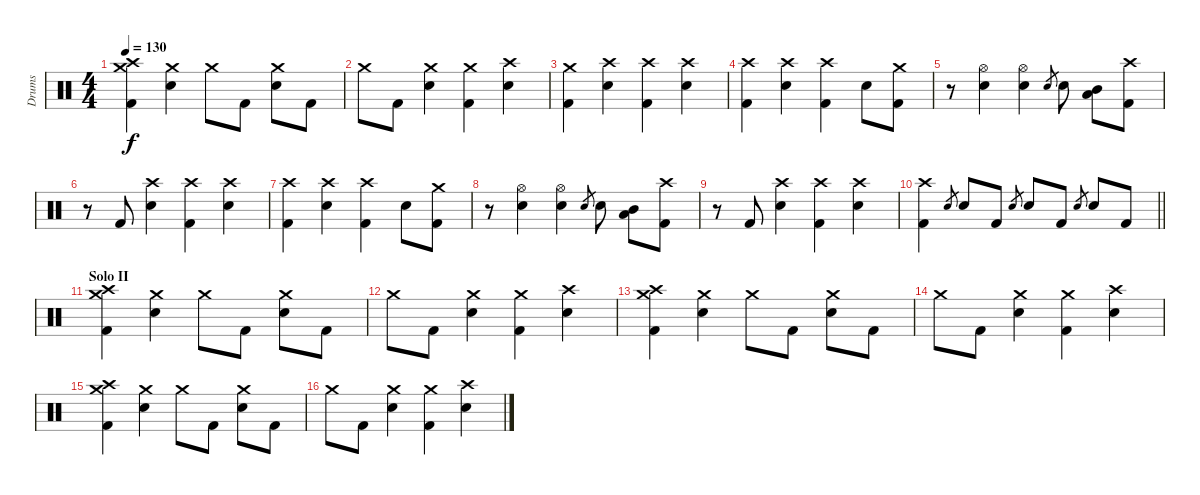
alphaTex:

\track ("Drums" "Drums") {instrument percussion}
\staff {score}
\articulation defaults
\ts (4 4)
\tempo 130
\clef neutral
\ks c
("Crash medium (hit)" "Crash high (hit)" "Kick (hit) 2").4{dy f} ("Crash medium (hit)" "Electric Snare (hit)").4 "Crash medium (hit)".8 "Kick (hit) 2".8 ("Crash medium (hit)" "Electric Snare (hit)").8 "Kick (hit) 2".8 |
"Crash medium (hit)".8 "Kick (hit) 2".8 ("Crash medium (hit)" "Electric Snare (hit)").4 ("Crash medium (hit)" "Kick (hit) 2").4 ("Crash high (hit)" "Electric Snare (hit)").4 |
("Crash medium (hit)" "Kick (hit) 2").4 ("Crash high (hit)" "Electric Snare (hit)").4 ("Crash high (hit)" "Kick (hit) 2").4 ("Crash high (hit)" "Electric Snare (hit)").4 |
("Crash high (hit)" "Kick (hit) 2").4 ("Crash high (hit)" "Electric Snare (hit)").4 ("Crash high (hit)" "Kick (hit) 2").4 "Electric Snare (hit)".8 ("Crash medium (hit)" "Kick (hit) 2").8 |
r.8 ("Hi-Hat (open)" "Electric Snare (hit)").4 ("Hi-Hat (open)" "Electric Snare (hit)").4 "Electric Snare (hit)".8{gr} "Electric Snare (hit)".8 ("Mid Tom (hit)" "Low Tom (hit)").8 ("Crash high (hit)" "Kick (hit) 2").8 |
r.8 "Kick (hit) 2".8 ("Crash high (hit)" "Electric Snare (hit)").4 ("Crash high (hit)" "Kick (hit) 2").4 ("Crash high (hit)" "Electric Snare (hit)").4 |
("Crash high (hit)" "Kick (hit) 2").4 ("Crash high (hit)" "Electric Snare (hit)").4 ("Crash high (hit)" "Kick (hit) 2").4 "Electric Snare (hit)".8 ("Crash medium (hit)" "Kick (hit) 2").8 |
r.8 ("Hi-Hat (open)" "Electric Snare (hit)").4 ("Hi-Hat (open)" "Electric Snare (hit)").4 "Electric Snare (hit)".8{gr} "Electric Snare (hit)".8 ("Mid Tom (hit)" "Low Tom (hit)").8 ("Crash high (hit)" "Kick (hit) 2").8 |
r.8 "Kick (hit) 2".8 ("Crash high (hit)" "Electric Snare (hit)").4 ("Crash high (hit)" "Kick (hit) 2").4 ("Crash high (hit)" "Electric Snare (hit)").4 |
\barLineRight lightlight
("Crash high (hit)" "Kick (hit) 2").4 "Electric Snare (hit)".8{gr} "Electric Snare (hit)".8 "Kick (hit) 2".8 "Electric Snare (hit)".8{gr} "Electric Snare (hit)".8 "Kick (hit) 2".8 "Electric Snare (hit)".8{gr} "Electric Snare (hit)".8 "Kick (hit) 2".8 |
\section ("" "Solo II")
("Crash medium (hit)" "Crash high (hit)" "Kick (hit) 2").4 ("Crash medium (hit)" "Electric Snare (hit)").4 "Crash medium (hit)".8 "Kick (hit) 2".8 ("Crash medium (hit)" "Electric Snare (hit)").8 "Kick (hit) 2".8 |
"Crash medium (hit)".8 "Kick (hit) 2".8 ("Crash medium (hit)" "Electric Snare (hit)").4 ("Crash medium (hit)" "Kick (hit) 2").4 ("Crash high (hit)" "Electric Snare (hit)").4 |
("Crash medium (hit)" "Crash high (hit)" "Kick (hit) 2").4 ("Crash medium (hit)" "Electric Snare (hit)").4 "Crash medium (hit)".8 "Kick (hit) 2".8 ("Crash medium (hit)" "Electric Snare (hit)").8 "Kick (hit) 2".8 |
"Crash medium (hit)".8 "Kick (hit) 2".8 ("Crash medium (hit)" "Electric Snare (hit)").4 ("Crash medium (hit)" "Kick (hit) 2").4 ("Crash high (hit)" "Electric Snare (hit)").4 |
("Crash medium (hit)" "Crash high (hit)" "Kick (hit) 2").4 ("Crash medium (hit)" "Electric Snare (hit)").4 "Crash medium (hit)".8 "Kick (hit) 2".8 ("Crash medium (hit)" "Electric Snare (hit)").8 "Kick (hit) 2".8 |
"Crash medium (hit)".8 "Kick (hit) 2".8 ("Crash medium (hit)" "Electric Snare (hit)").4 ("Crash medium (hit)" "Kick (hit) 2").4 ("Crash high (hit)" "Electric Snare (hit)").4
